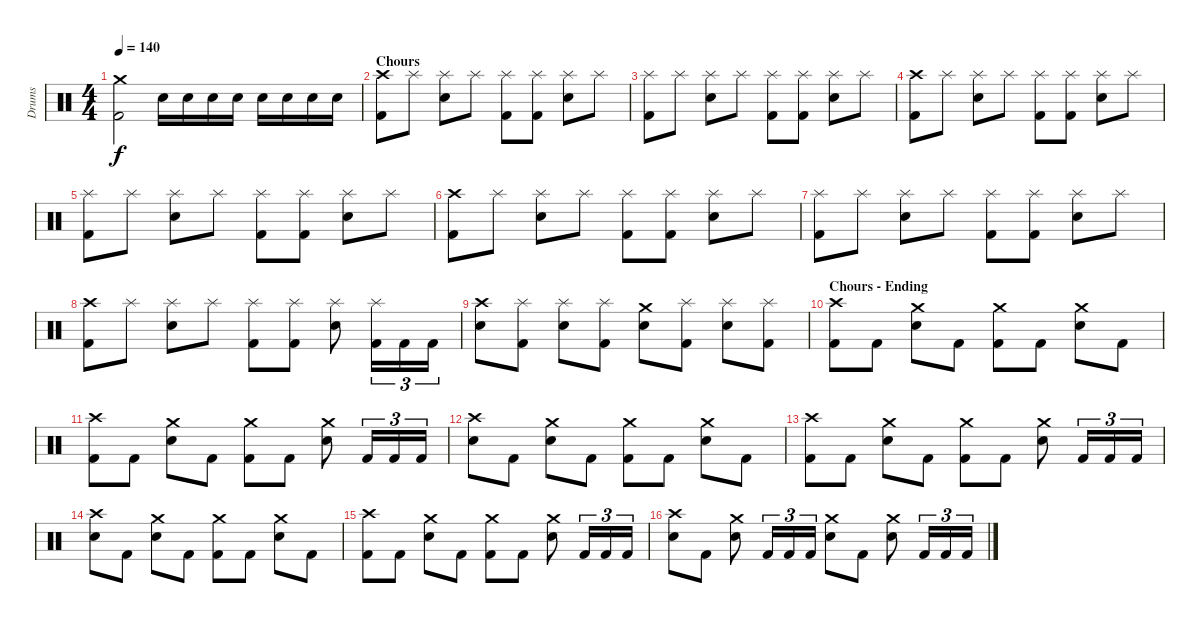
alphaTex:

\track ("Drums" "Drums") {instrument percussion}
\staff {score}
\articulation defaults
\ts (4 4)
\tempo 140
\clef neutral
\ks c
("Crash medium (hit)" "Kick (hit) 2").2{dy f} "Snare (hit) 2".16 "Snare (hit) 2".16 "Snare (hit) 2".16 "Snare (hit) 2".16 "Snare (hit) 2".16 "Snare (hit) 2".16 "Snare (hit) 2".16 "Snare (hit) 2".16 |
\section ("" "Chours")
("Crash high (hit)" "Kick (hit) 2").8 "Splash (hit)".8 ("Splash (hit)" "Snare (hit) 2").8 "Splash (hit)".8 ("Splash (hit)" "Kick (hit) 2").8 ("Splash (hit)" "Kick (hit) 2").8 ("Splash (hit)" "Snare (hit) 2").8 "Splash (hit)".8 |
("Splash (hit)" "Kick (hit) 2").8 "Splash (hit)".8 ("Splash (hit)" "Snare (hit) 2").8 "Splash (hit)".8 ("Splash (hit)" "Kick (hit) 2").8 ("Splash (hit)" "Kick (hit) 2").8 ("Splash (hit)" "Snare (hit) 2").8 "Splash (hit)".8 |
("Crash high (hit)" "Kick (hit) 2").8 "Splash (hit)".8 ("Splash (hit)" "Snare (hit) 2").8 "Splash (hit)".8 ("Splash (hit)" "Kick (hit) 2").8 ("Splash (hit)" "Kick (hit) 2").8 ("Splash (hit)" "Snare (hit) 2").8 "Splash (hit)".8 |
("Splash (hit)" "Kick (hit) 2").8 "Splash (hit)".8 ("Splash (hit)" "Snare (hit) 2").8 "Splash (hit)".8 ("Splash (hit)" "Kick (hit) 2").8 ("Splash (hit)" "Kick (hit) 2").8 ("Splash (hit)" "Snare (hit) 2").8 "Splash (hit)".8 |
("Crash high (hit)" "Kick (hit) 2").8 "Splash (hit)".8 ("Splash (hit)" "Snare (hit) 2").8 "Splash (hit)".8 ("Splash (hit)" "Kick (hit) 2").8 ("Splash (hit)" "Kick (hit) 2").8 ("Splash (hit)" "Snare (hit) 2").8 "Splash (hit)".8 |
("Splash (hit)" "Kick (hit) 2").8 "Splash (hit)".8 ("Splash (hit)" "Snare (hit) 2").8 "Splash (hit)".8 ("Splash (hit)" "Kick (hit) 2").8 ("Splash (hit)" "Kick (hit) 2").8 ("Splash (hit)" "Snare (hit) 2").8 "Splash (hit)".8 |
("Crash high (hit)" "Kick (hit) 2").8 "Splash (hit)".8 ("Splash (hit)" "Snare (hit) 2").8 "Splash (hit)".8 ("Splash (hit)" "Kick (hit) 2").8 ("Splash (hit)" "Kick (hit) 2").8 ("Splash (hit)" "Snare (hit) 2").8 ("Splash (hit)" "Kick (hit) 2").16{tu (3 2)} "Kick (hit) 2".16{tu (3 2)} "Kick (hit) 2".16{tu (3 2)} |
("Crash high (hit)" "Snare (hit) 2").8 ("Splash (hit)" "Kick (hit) 2").8 ("Splash (hit)" "Snare (hit) 2").8 ("Splash (hit)" "Kick (hit) 2").8 ("Crash medium (hit)" "Snare (hit) 2").8 ("Splash (hit)" "Kick (hit) 2").8 ("Splash (hit)" "Snare (hit) 2").8 ("Splash (hit)" "Kick (hit) 2").8 |
\section ("" "Chours - Ending")
("Crash high (hit)" "Kick (hit) 2").8 "Kick (hit) 2".8 ("Crash medium (hit)" "Snare (hit) 2").8 "Kick (hit) 2".8 ("Crash medium (hit)" "Kick (hit) 2").8 "Kick (hit) 2".8 ("Crash medium (hit)" "Snare (hit) 2").8 "Kick (hit) 2".8 |
("Crash high (hit)" "Kick (hit) 2").8 "Kick (hit) 2".8 ("Crash medium (hit)" "Snare (hit) 2").8 "Kick (hit) 2".8 ("Crash medium (hit)" "Kick (hit) 2").8 "Kick (hit) 2".8 ("Crash medium (hit)" "Snare (hit) 2").8 "Kick (hit) 2".16{tu (3 2)} "Kick (hit) 2".16{tu (3 2)} "Kick (hit) 2".16{tu (3 2)} |
("Crash high (hit)" "Snare (hit) 2").8 "Kick (hit) 2".8 ("Crash medium (hit)" "Snare (hit) 2").8 "Kick (hit) 2".8 ("Crash medium (hit)" "Kick (hit) 2").8 "Kick (hit) 2".8 ("Crash medium (hit)" "Snare (hit) 2").8 "Kick (hit) 2".8 |
("Crash high (hit)" "Kick (hit) 2").8 "Kick (hit) 2".8 ("Crash medium (hit)" "Snare (hit) 2").8 "Kick (hit) 2".8 ("Crash medium (hit)" "Kick (hit) 2").8 "Kick (hit) 2".8 ("Crash medium (hit)" "Snare (hit) 2").8 "Kick (hit) 2".16{tu (3 2)} "Kick (hit) 2".16{tu (3 2)} "Kick (hit) 2".16{tu (3 2)} |
("Crash high (hit)" "Snare (hit) 2").8 "Kick (hit) 2".8 ("Crash medium (hit)" "Snare (hit) 2").8 "Kick (hit) 2".8 ("Crash medium (hit)" "Kick (hit) 2").8 "Kick (hit) 2".8 ("Crash medium (hit)" "Snare (hit) 2").8 "Kick (hit) 2".8 |
("Crash high (hit)" "Kick (hit) 2").8 "Kick (hit) 2".8 ("Crash medium (hit)" "Snare (hit) 2").8 "Kick (hit) 2".8 ("Crash medium (hit)" "Kick (hit) 2").8 "Kick (hit) 2".8 ("Crash medium (hit)" "Snare (hit) 2").8 "Kick (hit) 2".16{tu (3 2)} "Kick (hit) 2".16{tu (3 2)} "Kick (hit) 2".16{tu (3 2)} |
("Crash high (hit)" "Snare (hit) 2").8 "Kick (hit) 2".8 ("Crash medium (hit)" "Snare (hit) 2").8 "Kick (hit) 2".16{tu (3 2)} "Kick (hit) 2".16{tu (3 2)} "Kick (hit) 2".16{tu (3 2)} ("Crash medium (hit)" "Snare (hit) 2").8 "Kick (hit) 2".8 ("Crash medium (hit)" "Snare (hit) 2").8 "Kick (hit) 2".16{tu (3 2)} "Kick (hit) 2".16{tu (3 2)} "Kick (hit) 2".16{tu (3 2)}
